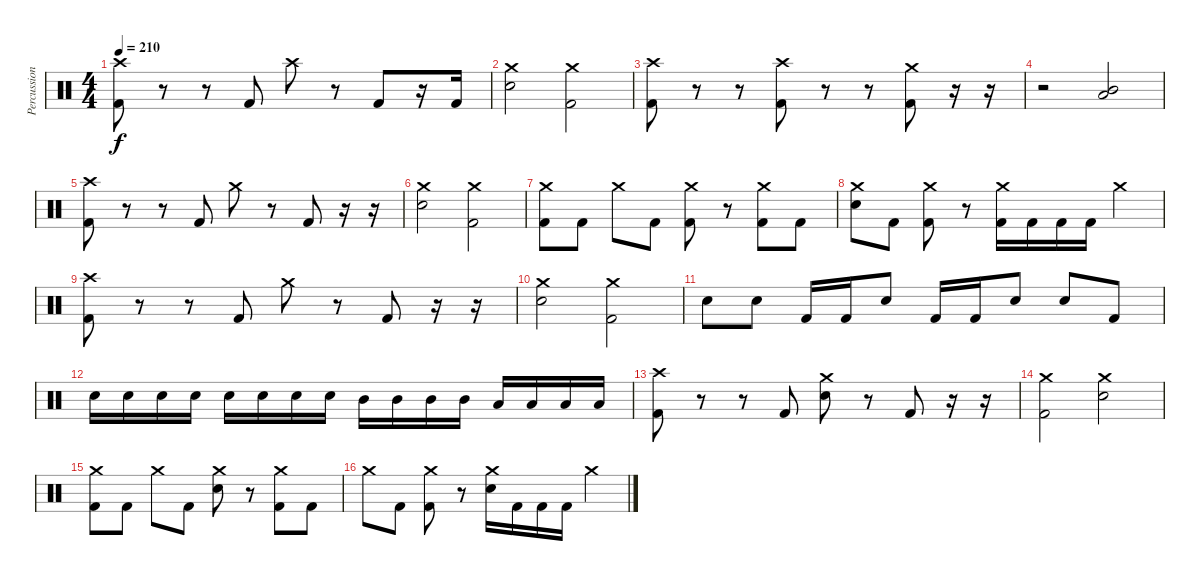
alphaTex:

\track ("Percussions" "Percussion") {instrument percussion}
\staff {score}
\articulation defaults
\ts (4 4)
\tempo 210
\clef neutral
\ks c
("Kick (hit) 2" "Crash high (hit)").8{dy f} r.8 r.8 "Kick (hit) 2".8 "Crash high (hit)".8 r.8 "Kick (hit) 2".8 r.16 "Kick (hit) 2".16 |
("Electric Snare (hit)" "Crash medium (hit)").2 ("Kick (hit) 2" "Crash medium (hit)").2 |
("Kick (hit) 2" "Crash high (hit)").8 r.8 r.8 ("Kick (hit) 2" "Crash high (hit)").8 r.8 r.8 ("Kick (hit) 2" "Crash medium (hit)").8 r.16 r.16 |
r.2 ("Low Tom (hit)" "Mid Tom (hit)").2 |
("Kick (hit) 2" "Crash high (hit)").8 r.8 r.8 "Kick (hit) 2".8 "Crash medium (hit)".8 r.8 "Kick (hit) 2".8 r.16 r.16 |
("Electric Snare (hit)" "Crash medium (hit)").2 ("Kick (hit) 2" "Crash medium (hit)").2 |
("Kick (hit) 2" "Crash medium (hit)").8 "Kick (hit) 2".8 "Crash medium (hit)".8 "Kick (hit) 2".8 ("Kick (hit) 2" "Crash medium (hit)").8 r.8 ("Kick (hit) 2" "Crash medium (hit)").8 "Kick (hit) 2".8 |
("Electric Snare (hit)" "Crash medium (hit)").8 "Kick (hit) 2".8 ("Kick (hit) 2" "Crash medium (hit)").8 r.8 ("Kick (hit) 2" "Crash medium (hit)").16 "Kick (hit) 2".16 "Kick (hit) 2".16 "Kick (hit) 2".16 "Crash medium (hit)".4 |
("Kick (hit) 2" "Crash high (hit)").8 r.8 r.8 "Kick (hit) 2".8 "Crash medium (hit)".8 r.8 "Kick (hit) 2".8 r.16 r.16 |
("Electric Snare (hit)" "Crash medium (hit)").2 ("Kick (hit) 2" "Crash medium (hit)").2 |
"Electric Snare (hit)".8 "Electric Snare (hit)".8 "Kick (hit) 2".16 "Kick (hit) 2".16 "Electric Snare (hit)".8 "Kick (hit) 2".16 "Kick (hit) 2".16 "Electric Snare (hit)".8 "Electric Snare (hit)".8 "Kick (hit) 2".8 |
"Electric Snare (hit)".16 "Electric Snare (hit)".16 "Electric Snare (hit)".16 "Electric Snare (hit)".16 "Electric Snare (hit)".16 "Electric Snare (hit)".16 "Electric Snare (hit)".16 "Electric Snare (hit)".16 "Mid Tom (hit)".16 "Mid Tom (hit)".16 "Mid Tom (hit)".16 "Mid Tom (hit)".16 "Low Tom (hit)".16 "Low Tom (hit)".16 "Low Tom (hit)".16 "Low Tom (hit)".16 |
("Kick (hit) 2" "Crash high (hit)").8 r.8 r.8 "Kick (hit) 2".8 ("Electric Snare (hit)" "Crash medium (hit)").8 r.8 "Kick (hit) 2".8 r.16 r.16 |
("Kick (hit) 2" "Crash medium (hit)").2 ("Electric Snare (hit)" "Crash medium (hit)").2 |
("Kick (hit) 2" "Crash medium (hit)").8 "Kick (hit) 2".8 "Crash medium (hit)".8 "Kick (hit) 2".8 ("Electric Snare (hit)" "Crash medium (hit)").8 r.8 ("Kick (hit) 2" "Crash medium (hit)").8 "Kick (hit) 2".8 |
"Crash medium (hit)".8 "Kick (hit) 2".8 ("Kick (hit) 2" "Crash medium (hit)").8 r.8 ("Electric Snare (hit)" "Crash medium (hit)").16 "Kick (hit) 2".16 "Kick (hit) 2".16 "Kick (hit) 2".16 "Crash medium (hit)".4
